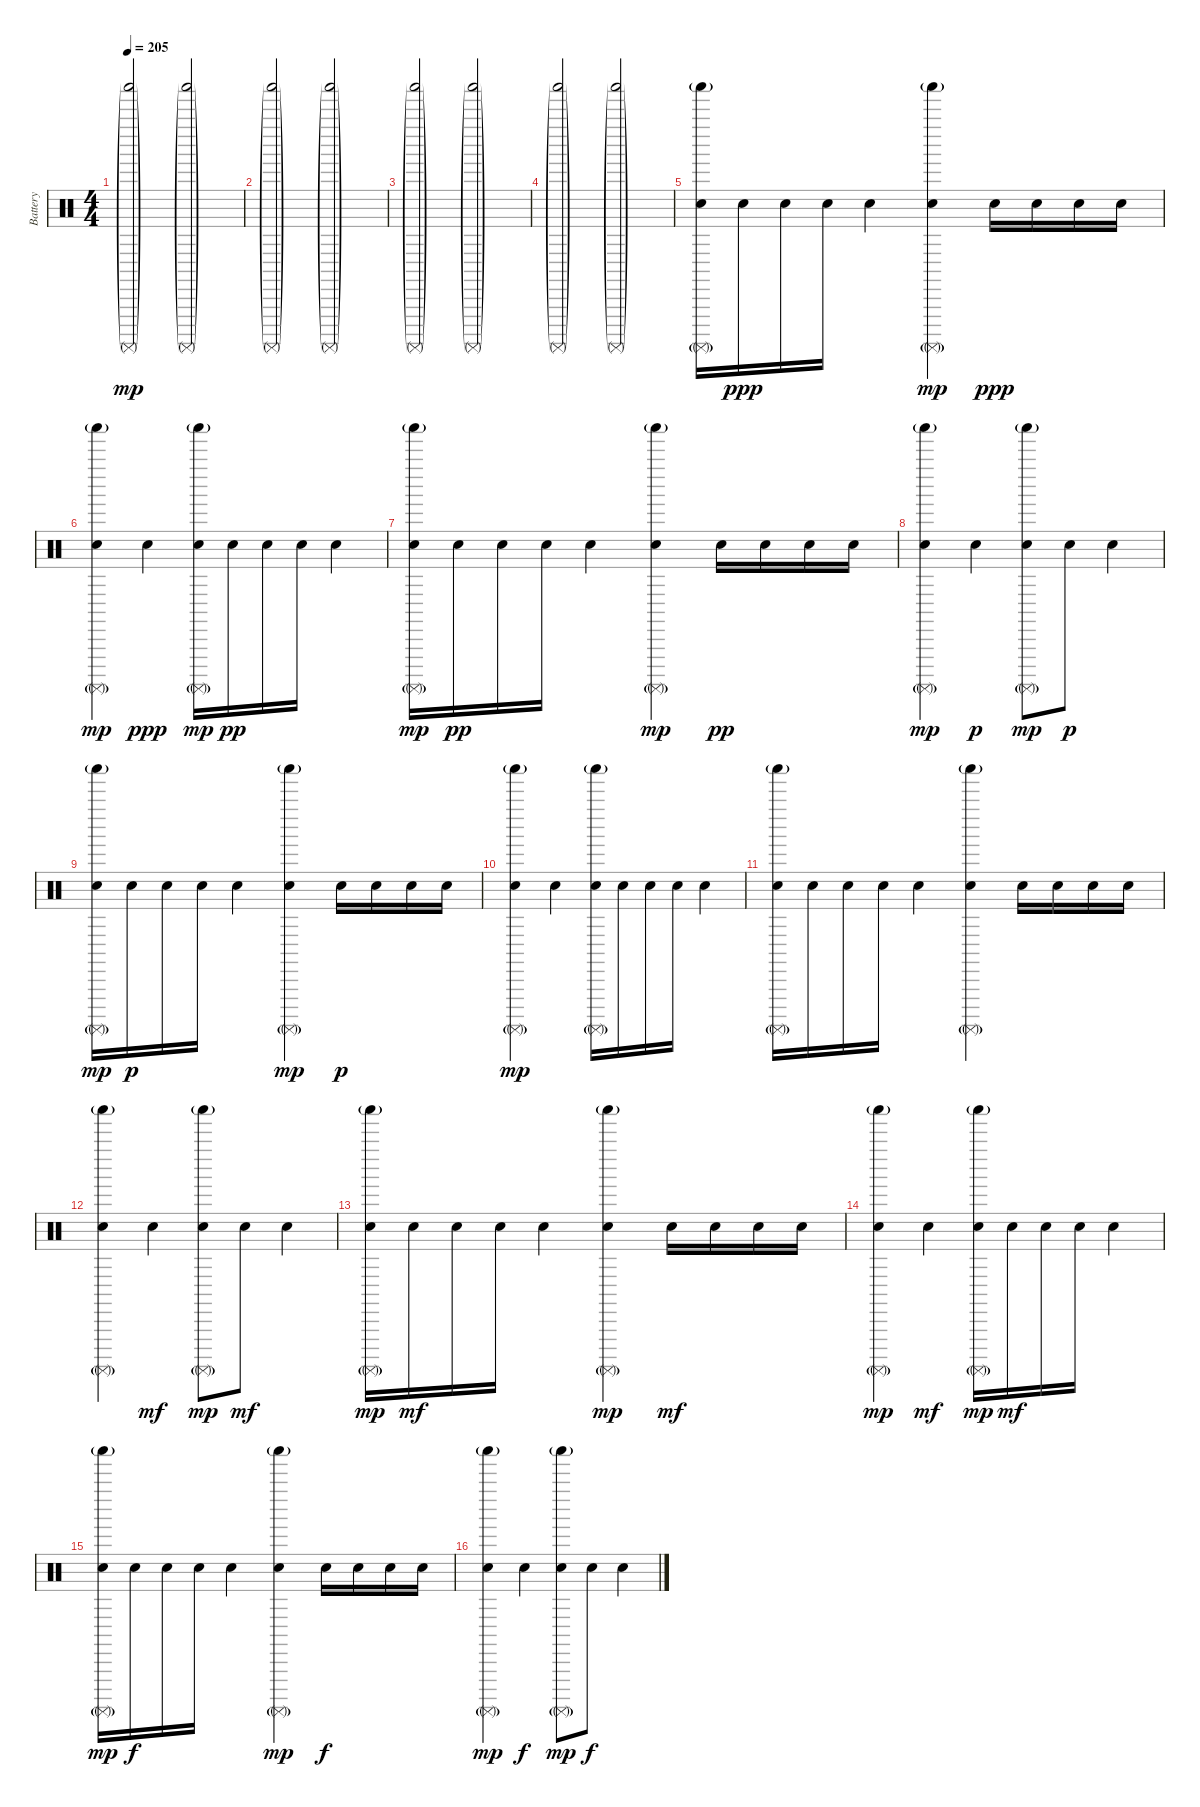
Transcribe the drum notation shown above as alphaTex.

\track ("Battery" "Battery") {instrument percussion}
\staff {score}
\articulation defaults
\ts (4 4)
\tempo 205
\clef neutral
\ks c
("Shaker (hit)"{g} "Surdo (mute)"{g}).2{dy mp} ("Shaker (hit)"{g} "Surdo (mute)"{g}).2 |
("Shaker (hit)"{g} "Surdo (mute)"{g}).2 ("Shaker (hit)"{g} "Surdo (mute)"{g}).2 |
("Shaker (hit)"{g} "Surdo (mute)"{g}).2 ("Shaker (hit)"{g} "Surdo (mute)"{g}).2 |
("Shaker (hit)"{g} "Surdo (mute)"{g}).2 ("Shaker (hit)"{g} "Surdo (mute)"{g}).2 |
("Shaker (hit)"{g} "Electric Snare (hit)" "Surdo (mute)"{g}).16 "Electric Snare (hit)".16{dy ppp} "Electric Snare (hit)".16 "Electric Snare (hit)".16 "Electric Snare (hit)".4 ("Shaker (hit)"{g} "Electric Snare (hit)" "Surdo (mute)"{g}).4{dy mp} "Electric Snare (hit)".16{dy ppp} "Electric Snare (hit)".16 "Electric Snare (hit)".16 "Electric Snare (hit)".16 |
("Shaker (hit)"{g} "Electric Snare (hit)" "Surdo (mute)"{g}).4{dy mp} "Electric Snare (hit)".4{dy ppp} ("Shaker (hit)"{g} "Electric Snare (hit)" "Surdo (mute)"{g}).16{dy mp} "Electric Snare (hit)".16{dy pp} "Electric Snare (hit)".16 "Electric Snare (hit)".16 "Electric Snare (hit)".4 |
("Shaker (hit)"{g} "Electric Snare (hit)" "Surdo (mute)"{g}).16{dy mp} "Electric Snare (hit)".16{dy pp} "Electric Snare (hit)".16 "Electric Snare (hit)".16 "Electric Snare (hit)".4 ("Shaker (hit)"{g} "Electric Snare (hit)" "Surdo (mute)"{g}).4{dy mp} "Electric Snare (hit)".16{dy pp} "Electric Snare (hit)".16 "Electric Snare (hit)".16 "Electric Snare (hit)".16 |
("Shaker (hit)"{g} "Electric Snare (hit)" "Surdo (mute)"{g}).4{dy mp} "Electric Snare (hit)".4{dy p} ("Shaker (hit)"{g} "Electric Snare (hit)" "Surdo (mute)"{g}).8{dy mp} "Electric Snare (hit)".8{dy p} "Electric Snare (hit)".4 |
("Shaker (hit)"{g} "Electric Snare (hit)" "Surdo (mute)"{g}).16{dy mp} "Electric Snare (hit)".16{dy p} "Electric Snare (hit)".16 "Electric Snare (hit)".16 "Electric Snare (hit)".4 ("Shaker (hit)"{g} "Electric Snare (hit)" "Surdo (mute)"{g}).4{dy mp} "Electric Snare (hit)".16{dy p} "Electric Snare (hit)".16 "Electric Snare (hit)".16 "Electric Snare (hit)".16 |
("Shaker (hit)"{g} "Electric Snare (hit)" "Surdo (mute)"{g}).4{dy mp} "Electric Snare (hit)".4 ("Shaker (hit)"{g} "Electric Snare (hit)" "Surdo (mute)"{g}).16 "Electric Snare (hit)".16 "Electric Snare (hit)".16 "Electric Snare (hit)".16 "Electric Snare (hit)".4 |
("Shaker (hit)"{g} "Electric Snare (hit)" "Surdo (mute)"{g}).16 "Electric Snare (hit)".16 "Electric Snare (hit)".16 "Electric Snare (hit)".16 "Electric Snare (hit)".4 ("Shaker (hit)"{g} "Electric Snare (hit)" "Surdo (mute)"{g}).4 "Electric Snare (hit)".16 "Electric Snare (hit)".16 "Electric Snare (hit)".16 "Electric Snare (hit)".16 |
("Shaker (hit)"{g} "Electric Snare (hit)" "Surdo (mute)"{g}).4 "Electric Snare (hit)".4{dy mf} ("Shaker (hit)"{g} "Electric Snare (hit)" "Surdo (mute)"{g}).8{dy mp} "Electric Snare (hit)".8{dy mf} "Electric Snare (hit)".4 |
("Shaker (hit)"{g} "Electric Snare (hit)" "Surdo (mute)"{g}).16{dy mp} "Electric Snare (hit)".16{dy mf} "Electric Snare (hit)".16 "Electric Snare (hit)".16 "Electric Snare (hit)".4 ("Shaker (hit)"{g} "Electric Snare (hit)" "Surdo (mute)"{g}).4{dy mp} "Electric Snare (hit)".16{dy mf} "Electric Snare (hit)".16 "Electric Snare (hit)".16 "Electric Snare (hit)".16 |
("Shaker (hit)"{g} "Electric Snare (hit)" "Surdo (mute)"{g}).4{dy mp} "Electric Snare (hit)".4{dy mf} ("Shaker (hit)"{g} "Electric Snare (hit)" "Surdo (mute)"{g}).16{dy mp} "Electric Snare (hit)".16{dy mf} "Electric Snare (hit)".16 "Electric Snare (hit)".16 "Electric Snare (hit)".4 |
("Shaker (hit)"{g} "Electric Snare (hit)" "Surdo (mute)"{g}).16{dy mp} "Electric Snare (hit)".16{dy f} "Electric Snare (hit)".16 "Electric Snare (hit)".16 "Electric Snare (hit)".4 ("Shaker (hit)"{g} "Electric Snare (hit)" "Surdo (mute)"{g}).4{dy mp} "Electric Snare (hit)".16{dy f} "Electric Snare (hit)".16 "Electric Snare (hit)".16 "Electric Snare (hit)".16 |
("Shaker (hit)"{g} "Electric Snare (hit)" "Surdo (mute)"{g}).4{dy mp} "Electric Snare (hit)".4{dy f} ("Shaker (hit)"{g} "Electric Snare (hit)" "Surdo (mute)"{g}).8{dy mp} "Electric Snare (hit)".8{dy f} "Electric Snare (hit)".4
